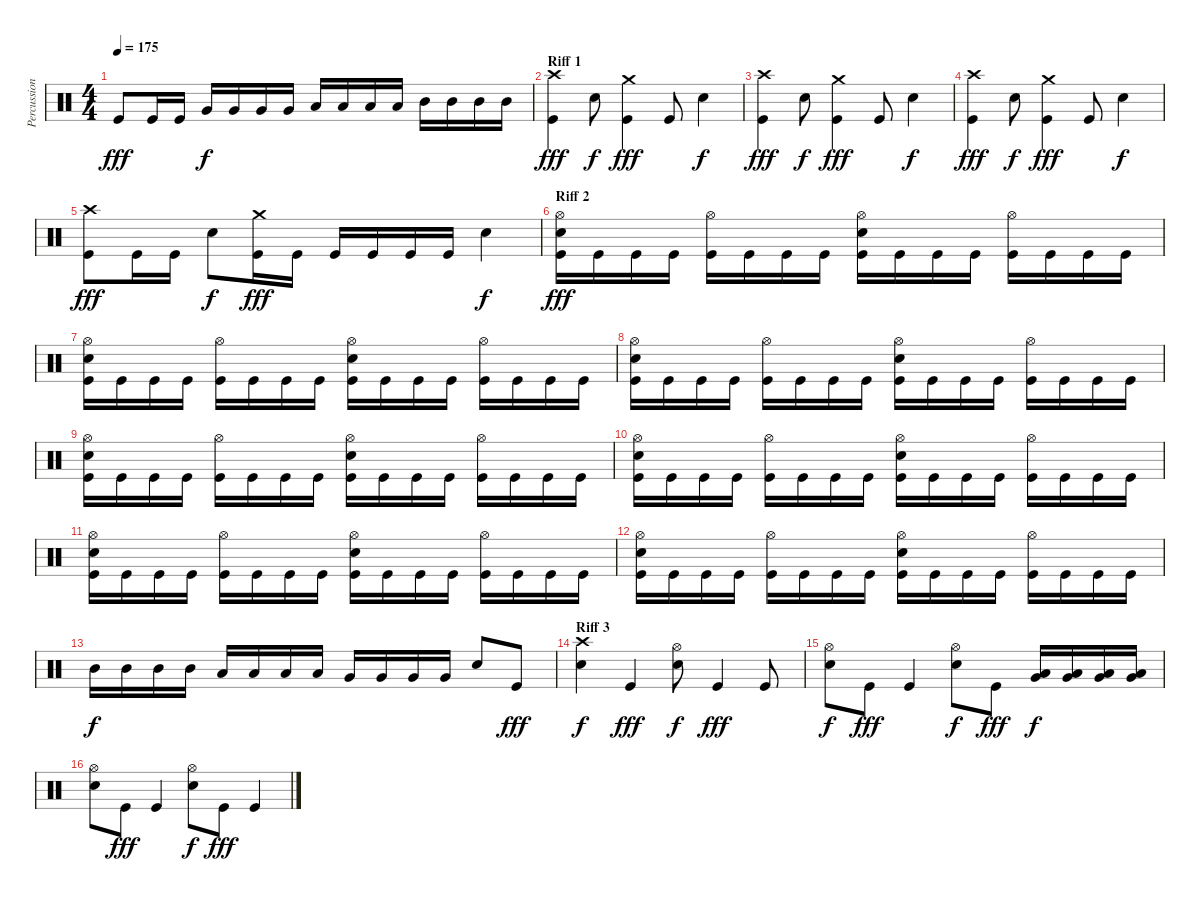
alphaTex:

\track ("Percussions" "Percussion") {instrument percussion}
\staff {score}
\articulation defaults
\ts (4 4)
\tempo 175
\clef neutral
\ks c "Kick (hit)".8{dy fff} "Kick (hit)".16 "Kick (hit)".16 "Very Low Tom (hit)".16{dy f} "Very Low Tom (hit)".16 "Very Low Tom (hit)".16 "Very Low Tom (hit)".16 "Low Tom (hit)".16 "Low Tom (hit)".16 "Low Tom (hit)".16 "Low Tom (hit)".16 "Mid Tom (hit)".16 "Mid Tom (hit)".16 "Mid Tom (hit)".16 "Mid Tom (hit)".16
|
\section ("" "Riff 1")
("Crash high (hit)" "Kick (hit)").4{dy fff} "Electric Snare (hit)".8{dy f} ("Crash medium (hit)" "Kick (hit)").4{dy fff} "Kick (hit)".8 "Electric Snare (hit)".4{dy f} |
("Crash high (hit)" "Kick (hit)").4{dy fff} "Electric Snare (hit)".8{dy f} ("Crash medium (hit)" "Kick (hit)").4{dy fff} "Kick (hit)".8 "Electric Snare (hit)".4{dy f} |
("Crash high (hit)" "Kick (hit)").4{dy fff} "Electric Snare (hit)".8{dy f} ("Crash medium (hit)" "Kick (hit)").4{dy fff} "Kick (hit)".8 "Electric Snare (hit)".4{dy f} |
("Crash high (hit)" "Kick (hit)").8{dy fff} "Kick (hit)".16 "Kick (hit)".16 "Electric Snare (hit)".8{dy f} ("Crash medium (hit)" "Kick (hit)").16{dy fff} "Kick (hit)".16 "Kick (hit)".16 "Kick (hit)".16 "Kick (hit)".16 "Kick (hit)".16 "Electric Snare (hit)".4{dy f} |
\section ("" "Riff 2")
("Hi-Hat (open)" "Electric Snare (hit)" "Kick (hit)").16{dy fff} "Kick (hit)".16 "Kick (hit)".16 "Kick (hit)".16 ("Hi-Hat (open)" "Kick (hit)").16 "Kick (hit)".16 "Kick (hit)".16 "Kick (hit)".16 ("Hi-Hat (open)" "Electric Snare (hit)" "Kick (hit)").16 "Kick (hit)".16 "Kick (hit)".16 "Kick (hit)".16 ("Hi-Hat (open)" "Kick (hit)").16 "Kick (hit)".16 "Kick (hit)".16 "Kick (hit)".16 |
("Hi-Hat (open)" "Electric Snare (hit)" "Kick (hit)").16 "Kick (hit)".16 "Kick (hit)".16 "Kick (hit)".16 ("Hi-Hat (open)" "Kick (hit)").16 "Kick (hit)".16 "Kick (hit)".16 "Kick (hit)".16 ("Hi-Hat (open)" "Electric Snare (hit)" "Kick (hit)").16 "Kick (hit)".16 "Kick (hit)".16 "Kick (hit)".16 ("Hi-Hat (open)" "Kick (hit)").16 "Kick (hit)".16 "Kick (hit)".16 "Kick (hit)".16 |
("Hi-Hat (open)" "Electric Snare (hit)" "Kick (hit)").16 "Kick (hit)".16 "Kick (hit)".16 "Kick (hit)".16 ("Hi-Hat (open)" "Kick (hit)").16 "Kick (hit)".16 "Kick (hit)".16 "Kick (hit)".16 ("Hi-Hat (open)" "Electric Snare (hit)" "Kick (hit)").16 "Kick (hit)".16 "Kick (hit)".16 "Kick (hit)".16 ("Hi-Hat (open)" "Kick (hit)").16 "Kick (hit)".16 "Kick (hit)".16 "Kick (hit)".16 |
("Hi-Hat (open)" "Electric Snare (hit)" "Kick (hit)").16 "Kick (hit)".16 "Kick (hit)".16 "Kick (hit)".16 ("Hi-Hat (open)" "Kick (hit)").16 "Kick (hit)".16 "Kick (hit)".16 "Kick (hit)".16 ("Hi-Hat (open)" "Electric Snare (hit)" "Kick (hit)").16 "Kick (hit)".16 "Kick (hit)".16 "Kick (hit)".16 ("Hi-Hat (open)" "Kick (hit)").16 "Kick (hit)".16 "Kick (hit)".16 "Kick (hit)".16 |
("Hi-Hat (open)" "Electric Snare (hit)" "Kick (hit)").16 "Kick (hit)".16 "Kick (hit)".16 "Kick (hit)".16 ("Hi-Hat (open)" "Kick (hit)").16 "Kick (hit)".16 "Kick (hit)".16 "Kick (hit)".16 ("Hi-Hat (open)" "Electric Snare (hit)" "Kick (hit)").16 "Kick (hit)".16 "Kick (hit)".16 "Kick (hit)".16 ("Hi-Hat (open)" "Kick (hit)").16 "Kick (hit)".16 "Kick (hit)".16 "Kick (hit)".16 |
("Hi-Hat (open)" "Electric Snare (hit)" "Kick (hit)").16 "Kick (hit)".16 "Kick (hit)".16 "Kick (hit)".16 ("Hi-Hat (open)" "Kick (hit)").16 "Kick (hit)".16 "Kick (hit)".16 "Kick (hit)".16 ("Hi-Hat (open)" "Electric Snare (hit)" "Kick (hit)").16 "Kick (hit)".16 "Kick (hit)".16 "Kick (hit)".16 ("Hi-Hat (open)" "Kick (hit)").16 "Kick (hit)".16 "Kick (hit)".16 "Kick (hit)".16 |
("Hi-Hat (open)" "Electric Snare (hit)" "Kick (hit)").16 "Kick (hit)".16 "Kick (hit)".16 "Kick (hit)".16 ("Hi-Hat (open)" "Kick (hit)").16 "Kick (hit)".16 "Kick (hit)".16 "Kick (hit)".16 ("Hi-Hat (open)" "Electric Snare (hit)" "Kick (hit)").16 "Kick (hit)".16 "Kick (hit)".16 "Kick (hit)".16 ("Hi-Hat (open)" "Kick (hit)").16 "Kick (hit)".16 "Kick (hit)".16 "Kick (hit)".16 |
"Mid Tom (hit)".16{dy f} "Mid Tom (hit)".16 "Mid Tom (hit)".16 "Mid Tom (hit)".16 "Low Tom (hit)".16 "Low Tom (hit)".16 "Low Tom (hit)".16 "Low Tom (hit)".16 "Very Low Tom (hit)".16 "Very Low Tom (hit)".16 "Very Low Tom (hit)".16 "Very Low Tom (hit)".16 "Electric Snare (hit)".8 "Kick (hit)".8{dy fff} |
\section ("" "Riff 3")
("Crash high (hit)" "Electric Snare (hit)").4{dy f} "Kick (hit)".4{dy fff} ("Hi-Hat (open)" "Electric Snare (hit)").8{dy f} "Kick (hit)".4{dy fff} "Kick (hit)".8 |
("Hi-Hat (open)" "Electric Snare (hit)").8{dy f} "Kick (hit)".8{dy fff} "Kick (hit)".4 ("Hi-Hat (open)" "Electric Snare (hit)").8{dy f} "Kick (hit)".8{dy fff} ("Low Floor Tom (hit)" "Very Low Tom (hit)").16{dy f} ("Low Floor Tom (hit)" "Very Low Tom (hit)").16 ("Low Floor Tom (hit)" "Very Low Tom (hit)").16 ("Low Floor Tom (hit)" "Very Low Tom (hit)").16 |
("Hi-Hat (open)" "Electric Snare (hit)").8 "Kick (hit)".8{dy fff} "Kick (hit)".4 ("Hi-Hat (open)" "Electric Snare (hit)").8{dy f} "Kick (hit)".8{dy fff} "Kick (hit)".4
